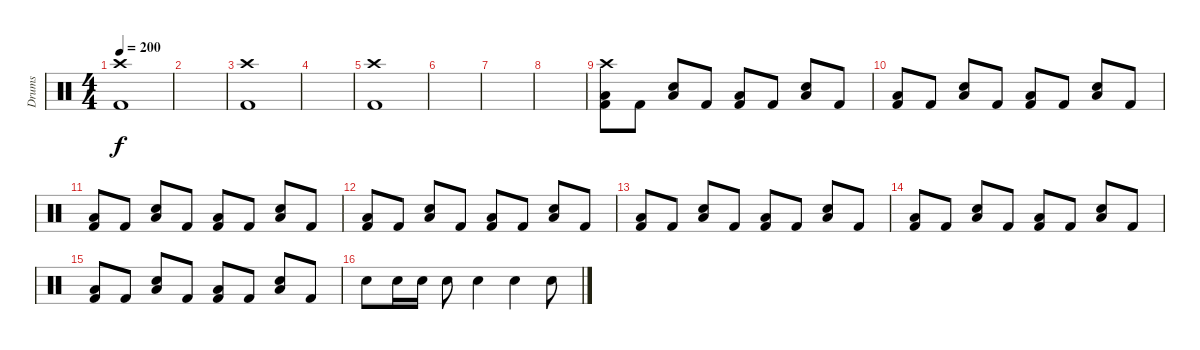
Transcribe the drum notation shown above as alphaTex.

\track ("Drums" "Drums") {instrument percussion}
\staff {score}
\articulation defaults
\ts (4 4)
\tempo 200
\clef neutral
\ks c
("Crash high (hit)" "Kick (hit) 2").1{dy f} |
|
("Crash high (hit)" "Kick (hit) 2").1 |
|
("Crash high (hit)" "Kick (hit) 2").1 |
|
|
|
("Crash high (hit)" "Low Tom (hit)" "Kick (hit) 2").8 "Kick (hit) 2".8 ("Snare (hit) 2" "Low Tom (hit)").8 "Kick (hit) 2".8 ("Low Tom (hit)" "Kick (hit) 2").8 "Kick (hit) 2".8 ("Snare (hit) 2" "Low Tom (hit)").8 "Kick (hit) 2".8 |
("Low Tom (hit)" "Kick (hit) 2").8 "Kick (hit) 2".8 ("Snare (hit) 2" "Low Tom (hit)").8 "Kick (hit) 2".8 ("Low Tom (hit)" "Kick (hit) 2").8 "Kick (hit) 2".8 ("Snare (hit) 2" "Low Tom (hit)").8 "Kick (hit) 2".8 |
("Low Tom (hit)" "Kick (hit) 2").8 "Kick (hit) 2".8 ("Snare (hit) 2" "Low Tom (hit)").8 "Kick (hit) 2".8 ("Low Tom (hit)" "Kick (hit) 2").8 "Kick (hit) 2".8 ("Snare (hit) 2" "Low Tom (hit)").8 "Kick (hit) 2".8 |
("Low Tom (hit)" "Kick (hit) 2").8 "Kick (hit) 2".8 ("Snare (hit) 2" "Low Tom (hit)").8 "Kick (hit) 2".8 ("Low Tom (hit)" "Kick (hit) 2").8 "Kick (hit) 2".8 ("Snare (hit) 2" "Low Tom (hit)").8 "Kick (hit) 2".8 |
("Low Tom (hit)" "Kick (hit) 2").8 "Kick (hit) 2".8 ("Snare (hit) 2" "Low Tom (hit)").8 "Kick (hit) 2".8 ("Low Tom (hit)" "Kick (hit) 2").8 "Kick (hit) 2".8 ("Snare (hit) 2" "Low Tom (hit)").8 "Kick (hit) 2".8 |
("Low Tom (hit)" "Kick (hit) 2").8 "Kick (hit) 2".8 ("Snare (hit) 2" "Low Tom (hit)").8 "Kick (hit) 2".8 ("Low Tom (hit)" "Kick (hit) 2").8 "Kick (hit) 2".8 ("Snare (hit) 2" "Low Tom (hit)").8 "Kick (hit) 2".8 |
("Low Tom (hit)" "Kick (hit) 2").8 "Kick (hit) 2".8 ("Snare (hit) 2" "Low Tom (hit)").8 "Kick (hit) 2".8 ("Low Tom (hit)" "Kick (hit) 2").8 "Kick (hit) 2".8 ("Snare (hit) 2" "Low Tom (hit)").8 "Kick (hit) 2".8 |
"Snare (hit) 2".8 "Snare (hit) 2".16 "Snare (hit) 2".16 "Snare (hit) 2".8 "Snare (hit) 2".4 "Snare (hit) 2".4 "Snare (hit) 2".8
